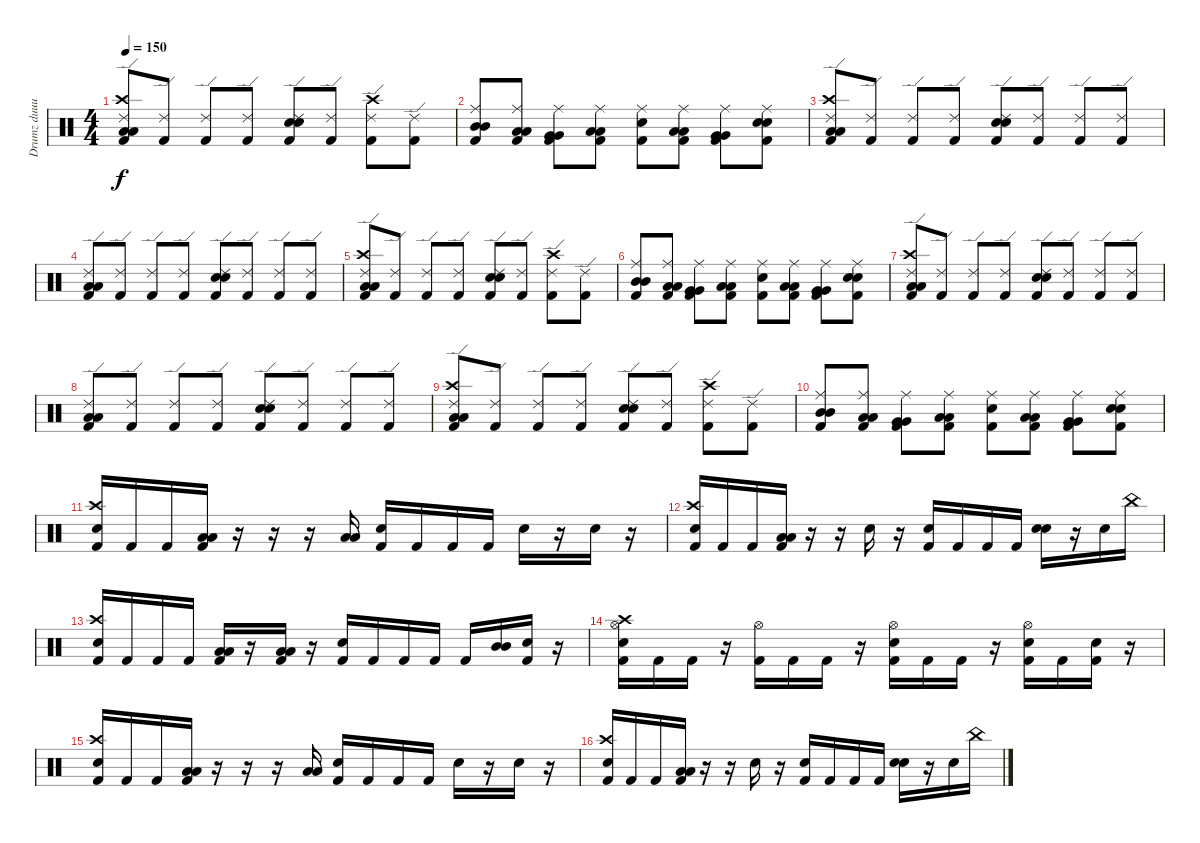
\track ("Drumz duuuuude" "Drumz duuu") {instrument percussion}
\staff {score}
\articulation defaults
\ts (4 4)
\tempo 150
\clef neutral
\ks c
("Kick (hit) 2" "Ride (edge) 2" "Crash high (hit)" "Low Floor Tom (hit)" "Low Floor Tom (hit)").8{dy f} ("Kick (hit) 2" "Ride (edge) 2").8 ("Kick (hit) 2" "Ride (edge) 2").8 ("Kick (hit) 2" "Ride (edge) 2").8 ("Kick (hit) 2" "Ride (edge) 2" "Snare (hit) 2" "Snare (hit) 2").8 ("Kick (hit) 2" "Ride (edge) 2").8 ("Kick (hit) 2" "Ride (edge) 2" "Crash high (hit)").8 ("Kick (hit) 2" "Ride (edge) 2").8 |
("Kick (hit) 2" "Ride (middle)" "Mid Tom (hit)" "Mid Tom (hit)").8 ("Kick (hit) 2" "Ride (middle)" "Low Tom (hit)" "Low Tom (hit)").8 ("Kick (hit) 2" "Ride (middle)" "Very Low Tom (hit)" "Very Low Tom (hit)").8 ("Kick (hit) 2" "Ride (middle)" "Low Floor Tom (hit)" "Low Floor Tom (hit)").8 ("Kick (hit) 2" "Ride (middle)" "Snare (hit) 2").8 ("Kick (hit) 2" "Ride (middle)" "Low Floor Tom (hit)" "Low Floor Tom (hit)").8 ("Kick (hit) 2" "Ride (middle)" "Very Low Tom (hit)" "Very Low Tom (hit)").8 ("Kick (hit) 2" "Ride (middle)" "Snare (hit) 2" "Snare (hit) 2").8 |
("Kick (hit) 2" "Ride (edge) 2" "Crash high (hit)" "Low Floor Tom (hit)" "Low Floor Tom (hit)").8 ("Kick (hit) 2" "Ride (edge) 2").8 ("Kick (hit) 2" "Ride (edge) 2").8 ("Kick (hit) 2" "Ride (edge) 2").8 ("Kick (hit) 2" "Ride (edge) 2" "Snare (hit) 2" "Snare (hit) 2").8 ("Kick (hit) 2" "Ride (edge) 2").8 ("Kick (hit) 2" "Ride (edge) 2").8 ("Kick (hit) 2" "Ride (edge) 2").8 |
("Kick (hit) 2" "Ride (edge) 2" "Low Floor Tom (hit)" "Low Floor Tom (hit)").8 ("Kick (hit) 2" "Ride (edge) 2").8 ("Kick (hit) 2" "Ride (edge) 2").8 ("Kick (hit) 2" "Ride (edge) 2").8 ("Kick (hit) 2" "Ride (edge) 2" "Snare (hit) 2" "Snare (hit) 2").8 ("Kick (hit) 2" "Ride (edge) 2").8 ("Kick (hit) 2" "Ride (edge) 2").8 ("Kick (hit) 2" "Ride (edge) 2").8 |
("Kick (hit) 2" "Ride (edge) 2" "Crash high (hit)" "Low Floor Tom (hit)" "Low Floor Tom (hit)").8 ("Kick (hit) 2" "Ride (edge) 2").8 ("Kick (hit) 2" "Ride (edge) 2").8 ("Kick (hit) 2" "Ride (edge) 2").8 ("Kick (hit) 2" "Ride (edge) 2" "Snare (hit) 2" "Snare (hit) 2").8 ("Kick (hit) 2" "Ride (edge) 2").8 ("Kick (hit) 2" "Ride (edge) 2" "Crash high (hit)").8 ("Kick (hit) 2" "Ride (edge) 2").8 |
("Kick (hit) 2" "Ride (middle)" "Mid Tom (hit)" "Mid Tom (hit)").8 ("Kick (hit) 2" "Ride (middle)" "Low Tom (hit)" "Low Tom (hit)").8 ("Kick (hit) 2" "Ride (middle)" "Very Low Tom (hit)" "Very Low Tom (hit)").8 ("Kick (hit) 2" "Ride (middle)" "Low Floor Tom (hit)" "Low Floor Tom (hit)").8 ("Kick (hit) 2" "Ride (middle)" "Snare (hit) 2").8 ("Kick (hit) 2" "Ride (middle)" "Low Floor Tom (hit)" "Low Floor Tom (hit)").8 ("Kick (hit) 2" "Ride (middle)" "Very Low Tom (hit)" "Very Low Tom (hit)").8 ("Kick (hit) 2" "Ride (middle)" "Snare (hit) 2" "Snare (hit) 2").8 |
("Kick (hit) 2" "Ride (edge) 2" "Crash high (hit)" "Low Floor Tom (hit)" "Low Floor Tom (hit)").8 ("Kick (hit) 2" "Ride (edge) 2").8 ("Kick (hit) 2" "Ride (edge) 2").8 ("Kick (hit) 2" "Ride (edge) 2").8 ("Kick (hit) 2" "Ride (edge) 2" "Snare (hit) 2" "Snare (hit) 2").8 ("Kick (hit) 2" "Ride (edge) 2").8 ("Kick (hit) 2" "Ride (edge) 2").8 ("Kick (hit) 2" "Ride (edge) 2").8 |
("Kick (hit) 2" "Ride (edge) 2" "Low Floor Tom (hit)" "Low Floor Tom (hit)").8 ("Kick (hit) 2" "Ride (edge) 2").8 ("Kick (hit) 2" "Ride (edge) 2").8 ("Kick (hit) 2" "Ride (edge) 2").8 ("Kick (hit) 2" "Ride (edge) 2" "Snare (hit) 2" "Snare (hit) 2").8 ("Kick (hit) 2" "Ride (edge) 2").8 ("Kick (hit) 2" "Ride (edge) 2").8 ("Kick (hit) 2" "Ride (edge) 2").8 |
("Kick (hit) 2" "Ride (edge) 2" "Crash high (hit)" "Low Floor Tom (hit)" "Low Floor Tom (hit)").8 ("Kick (hit) 2" "Ride (edge) 2").8 ("Kick (hit) 2" "Ride (edge) 2").8 ("Kick (hit) 2" "Ride (edge) 2").8 ("Kick (hit) 2" "Ride (edge) 2" "Snare (hit) 2" "Snare (hit) 2").8 ("Kick (hit) 2" "Ride (edge) 2").8 ("Kick (hit) 2" "Ride (edge) 2" "Crash high (hit)").8 ("Kick (hit) 2" "Ride (edge) 2").8 |
("Kick (hit) 2" "Ride (middle)" "Mid Tom (hit)" "Mid Tom (hit)").8 ("Kick (hit) 2" "Ride (middle)" "Low Tom (hit)" "Low Tom (hit)").8 ("Kick (hit) 2" "Ride (middle)" "Very Low Tom (hit)" "Very Low Tom (hit)").8 ("Kick (hit) 2" "Ride (middle)" "Low Floor Tom (hit)" "Low Floor Tom (hit)").8 ("Kick (hit) 2" "Ride (middle)" "Snare (hit) 2").8 ("Kick (hit) 2" "Ride (middle)" "Low Floor Tom (hit)" "Low Floor Tom (hit)").8 ("Kick (hit) 2" "Ride (middle)" "Very Low Tom (hit)" "Very Low Tom (hit)").8 ("Kick (hit) 2" "Ride (middle)" "Snare (hit) 2" "Snare (hit) 2").8 |
("Crash high (hit)" "Kick (hit) 2" "Snare (hit) 2").16 "Kick (hit) 2".16 "Kick (hit) 2".16 ("Kick (hit) 2" "Low Floor Tom (hit)" "Low Floor Tom (hit)").16 r.16 r.16 r.16 ("Low Floor Tom (hit)" "Low Floor Tom (hit)").16 ("Kick (hit) 2" "Electric Snare (hit)").16 "Kick (hit) 2".16 "Kick (hit) 2".16 "Kick (hit) 2".16 "Snare (hit) 2".16 r.16 "Snare (hit) 2".16 r.16 |
("Crash high (hit)" "Kick (hit) 2" "Snare (hit) 2").16 "Kick (hit) 2".16 "Kick (hit) 2".16 ("Kick (hit) 2" "Low Floor Tom (hit)" "Low Floor Tom (hit)").16 r.16 r.16 "Electric Snare (hit)".16 r.16 ("Kick (hit) 2" "Electric Snare (hit)").16 "Kick (hit) 2".16 "Kick (hit) 2".16 "Kick (hit) 2".16 ("Electric Snare (hit)" "Snare (hit) 2").16 r.16 "Snare (hit) 2".16 "China (hit)".16 |
("Crash high (hit)" "Kick (hit) 2" "Snare (hit) 2").16 "Kick (hit) 2".16 "Kick (hit) 2".16 "Kick (hit) 2".16 ("Kick (hit) 2" "Low Floor Tom (hit)" "Low Floor Tom (hit)").16 r.16 ("Kick (hit) 2" "Low Floor Tom (hit)" "Low Floor Tom (hit)").16 r.16 ("Kick (hit) 2" "Electric Snare (hit)").16 "Kick (hit) 2".16 "Kick (hit) 2".16 "Kick (hit) 2".16 "Kick (hit) 2".16 ("Mid Tom (hit)" "Mid Tom (hit)").16 ("Kick (hit) 2" "Electric Snare (hit)").16 r.16 |
("Hi-Hat (open)" "Kick (hit) 2" "Snare (hit) 2" "Crash high (hit)").16 "Kick (hit) 2".16 "Kick (hit) 2".16 r.16 ("Hi-Hat (open)" "Kick (hit) 2").16 "Kick (hit) 2".16 "Kick (hit) 2".16 r.16 ("Hi-Hat (open)" "Kick (hit) 2" "Snare (hit) 2").16 "Kick (hit) 2".16 "Kick (hit) 2".16 r.16 ("Hi-Hat (open)" "Kick (hit) 2" "Electric Snare (hit)").16 "Kick (hit) 2".16 ("Kick (hit) 2" "Electric Snare (hit)").16 r.16 |
("Crash high (hit)" "Kick (hit) 2" "Snare (hit) 2").16 "Kick (hit) 2".16 "Kick (hit) 2".16 ("Kick (hit) 2" "Low Floor Tom (hit)" "Low Floor Tom (hit)").16 r.16 r.16 r.16 ("Low Floor Tom (hit)" "Low Floor Tom (hit)").16 ("Kick (hit) 2" "Electric Snare (hit)").16 "Kick (hit) 2".16 "Kick (hit) 2".16 "Kick (hit) 2".16 "Snare (hit) 2".16 r.16 "Snare (hit) 2".16 r.16 |
("Crash high (hit)" "Kick (hit) 2" "Snare (hit) 2").16 "Kick (hit) 2".16 "Kick (hit) 2".16 ("Kick (hit) 2" "Low Floor Tom (hit)" "Low Floor Tom (hit)").16 r.16 r.16 "Electric Snare (hit)".16 r.16 ("Kick (hit) 2" "Electric Snare (hit)").16 "Kick (hit) 2".16 "Kick (hit) 2".16 "Kick (hit) 2".16 ("Electric Snare (hit)" "Snare (hit) 2").16 r.16 "Snare (hit) 2".16 "China (hit)".16
